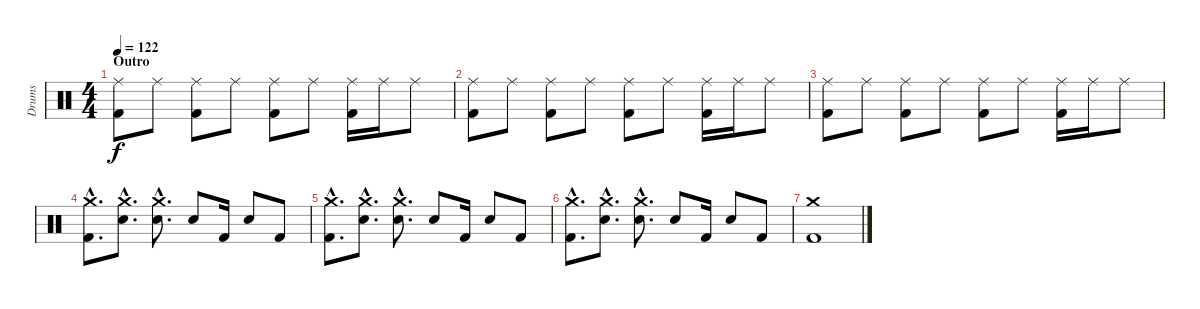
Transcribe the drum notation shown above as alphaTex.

\track ("Drums" "Drums") {instrument percussion}
\staff {score}
\articulation defaults
\ts (4 4)
\section ("" "Outro")
\tempo 122
\clef neutral
\ks c
("Ride (middle)" "Kick (hit) 2").8{dy f} "Ride (middle)".8 ("Ride (middle)" "Kick (hit) 2").8 "Ride (middle)".8 ("Ride (middle)" "Kick (hit) 2").8 "Ride (middle)".8 ("Ride (middle)" "Kick (hit) 2").16 "Ride (middle)".16 "Ride (middle)".8 |
("Ride (middle)" "Kick (hit) 2").8 "Ride (middle)".8 ("Ride (middle)" "Kick (hit) 2").8 "Ride (middle)".8 ("Ride (middle)" "Kick (hit) 2").8 "Ride (middle)".8 ("Ride (middle)" "Kick (hit) 2").16 "Ride (middle)".16 "Ride (middle)".8 |
("Ride (middle)" "Kick (hit) 2").8 "Ride (middle)".8 ("Ride (middle)" "Kick (hit) 2").8 "Ride (middle)".8 ("Ride (middle)" "Kick (hit) 2").8 "Ride (middle)".8 ("Ride (middle)" "Kick (hit) 2").16 "Ride (middle)".16 "Ride (middle)".8 |
("Crash medium (hit)"{hac} "Kick (hit) 2"{hac}).8{d} ("Crash medium (hit)"{hac} "Snare (hit) 2"{hac}).8{d} ("Crash medium (hit)"{hac} "Snare (hit) 2"{hac}).8{d} "Snare (hit) 2".8 "Kick (hit) 2".16 "Snare (hit) 2".8 "Kick (hit) 2".8 |
("Crash medium (hit)"{hac} "Kick (hit) 2"{hac}).8{d} ("Crash medium (hit)"{hac} "Snare (hit) 2"{hac}).8{d} ("Crash medium (hit)"{hac} "Snare (hit) 2"{hac}).8{d} "Snare (hit) 2".8 "Kick (hit) 2".16 "Snare (hit) 2".8 "Kick (hit) 2".8 |
("Crash medium (hit)"{hac} "Kick (hit) 2"{hac}).8{d} ("Crash medium (hit)"{hac} "Snare (hit) 2"{hac}).8{d} ("Crash medium (hit)"{hac} "Snare (hit) 2"{hac}).8{d} "Snare (hit) 2".8 "Kick (hit) 2".16 "Snare (hit) 2".8 "Kick (hit) 2".8 |
("Crash medium (hit)" "Kick (hit) 2").1
